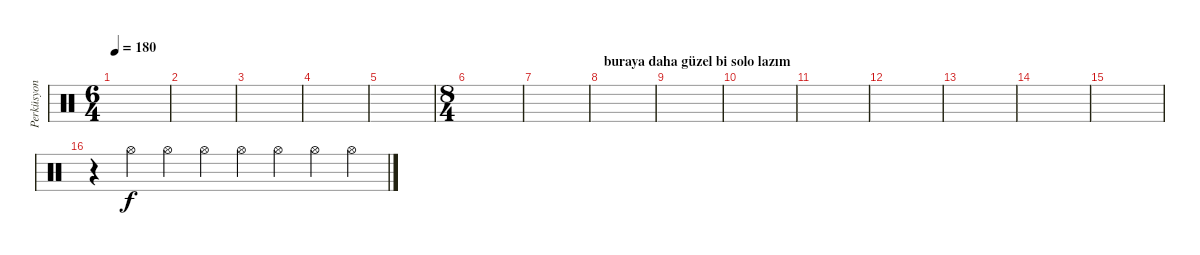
\track ("Perküsyon" "Perküsyon") {instrument percussion}
\staff {score}
\articulation defaults
\ts (6 4)
\tempo 180
\clef neutral
\ks c
|
|
|
|
|
\ts (8 4)
|
|
\section ("" "buraya daha güzel bi solo lazım")
|
|
|
|
|
|
|
|
r.4 "Hi-Hat (open)".4{dy f} "Hi-Hat (open)".4 "Hi-Hat (open)".4 "Hi-Hat (open)".4 "Hi-Hat (open)".4 "Hi-Hat (open)".4 "Hi-Hat (open)".4
